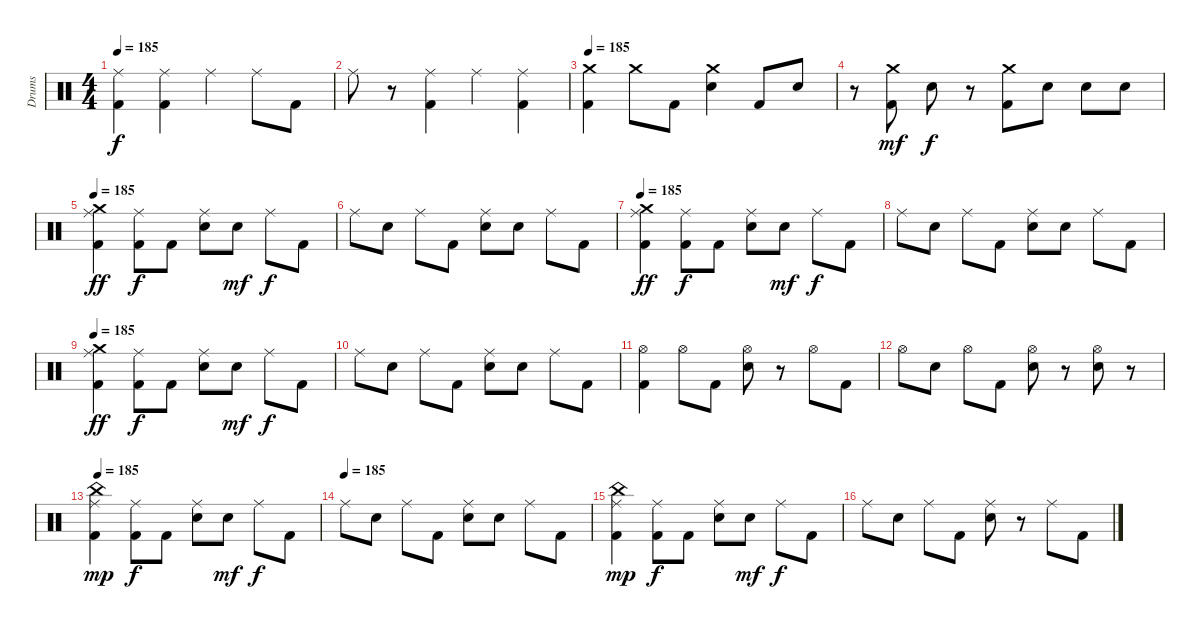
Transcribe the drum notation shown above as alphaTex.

\track ("Drums" "Drums") {instrument percussion}
\staff {score}
\articulation defaults
\ts (4 4)
\tempo 185
\clef neutral
\ks c
("Ride (middle)" "Kick (hit) 2").4{dy f} ("Ride (middle)" "Kick (hit) 2").4 "Ride (middle)".4 "Ride (middle)".8 "Kick (hit) 2".8 |
"Ride (middle)".8 r.8 ("Ride (middle)" "Kick (hit) 2").4 "Ride (middle)".4 ("Ride (middle)" "Kick (hit) 2").4 |
\tempo 185
("Crash medium (hit)" "Kick (hit) 2").4 "Crash medium (hit)".8 "Kick (hit) 2".8 ("Crash medium (hit)" "Snare (hit) 2").4 "Kick (hit) 2".8 "Snare (hit) 2".8 |
r.8 ("Crash medium (hit)" "Kick (hit) 2").8{dy mf} "Snare (hit) 2".8{dy f} r.8 ("Crash medium (hit)" "Kick (hit) 2").8 "Snare (hit) 2".8 "Snare (hit) 2".8 "Snare (hit) 2".8 |
\tempo 185
("Ride (middle)" "Crash medium (hit)" "Kick (hit) 2").4{dy ff volume 12} ("Ride (middle)" "Kick (hit) 2").8{dy f} "Kick (hit) 2".8 ("Ride (middle)" "Snare (hit) 2").8 "Snare (hit) 2".8{dy mf} "Ride (middle)".8{dy f} "Kick (hit) 2".8 |
"Ride (middle)".8 "Snare (hit) 2".8 "Ride (middle)".8 "Kick (hit) 2".8 ("Ride (middle)" "Snare (hit) 2").8 "Snare (hit) 2".8 "Ride (middle)".8 "Kick (hit) 2".8 |
\tempo 185
("Ride (middle)" "Crash medium (hit)" "Kick (hit) 2").4{dy ff volume 12} ("Ride (middle)" "Kick (hit) 2").8{dy f} "Kick (hit) 2".8 ("Ride (middle)" "Snare (hit) 2").8 "Snare (hit) 2".8{dy mf} "Ride (middle)".8{dy f} "Kick (hit) 2".8 |
"Ride (middle)".8 "Snare (hit) 2".8 "Ride (middle)".8 "Kick (hit) 2".8 ("Ride (middle)" "Snare (hit) 2").8 "Snare (hit) 2".8 "Ride (middle)".8 "Kick (hit) 2".8 |
\tempo 185
("Ride (middle)" "Crash medium (hit)" "Kick (hit) 2").4{dy ff volume 12} ("Ride (middle)" "Kick (hit) 2").8{dy f} "Kick (hit) 2".8 ("Ride (middle)" "Snare (hit) 2").8 "Snare (hit) 2".8{dy mf} "Ride (middle)".8{dy f} "Kick (hit) 2".8 |
"Ride (middle)".8 "Snare (hit) 2".8 "Ride (middle)".8 "Kick (hit) 2".8 ("Ride (middle)" "Snare (hit) 2").8 "Snare (hit) 2".8 "Ride (middle)".8 "Kick (hit) 2".8 |
("Hi-Hat (open)" "Kick (hit) 2").4 "Hi-Hat (open)".8 "Kick (hit) 2".8 ("Hi-Hat (open)" "Snare (hit) 2").8 r.8 "Hi-Hat (open)".8 "Kick (hit) 2".8 |
"Hi-Hat (open)".8 "Snare (hit) 2".8 "Hi-Hat (open)".8 "Kick (hit) 2".8 ("Hi-Hat (open)" "Snare (hit) 2").8 r.8 ("Hi-Hat (open)" "Snare (hit) 2").8 r.8 |
\tempo 185
("Ride (middle)" "China (hit)" "Kick (hit) 2").4{dy mp volume 12} ("Ride (middle)" "Kick (hit) 2").8{dy f} "Kick (hit) 2".8 ("Ride (middle)" "Snare (hit) 2").8 "Snare (hit) 2".8{dy mf} "Ride (middle)".8{dy f} "Kick (hit) 2".8 |
\tempo (185)
"Ride (middle)".8 "Snare (hit) 2".8 "Ride (middle)".8 "Kick (hit) 2".8 ("Ride (middle)" "Snare (hit) 2").8 "Snare (hit) 2".8 "Ride (middle)".8 "Kick (hit) 2".8 |
("Ride (middle)" "China (hit)" "Kick (hit) 2").4{dy mp} ("Ride (middle)" "Kick (hit) 2").8{dy f} "Kick (hit) 2".8 ("Ride (middle)" "Snare (hit) 2").8 "Snare (hit) 2".8{dy mf} "Ride (middle)".8{dy f} "Kick (hit) 2".8 |
"Ride (middle)".8 "Snare (hit) 2".8 "Ride (middle)".8 "Kick (hit) 2".8 ("Ride (middle)" "Snare (hit) 2").8 r.8 "Ride (middle)".8 "Kick (hit) 2".8
